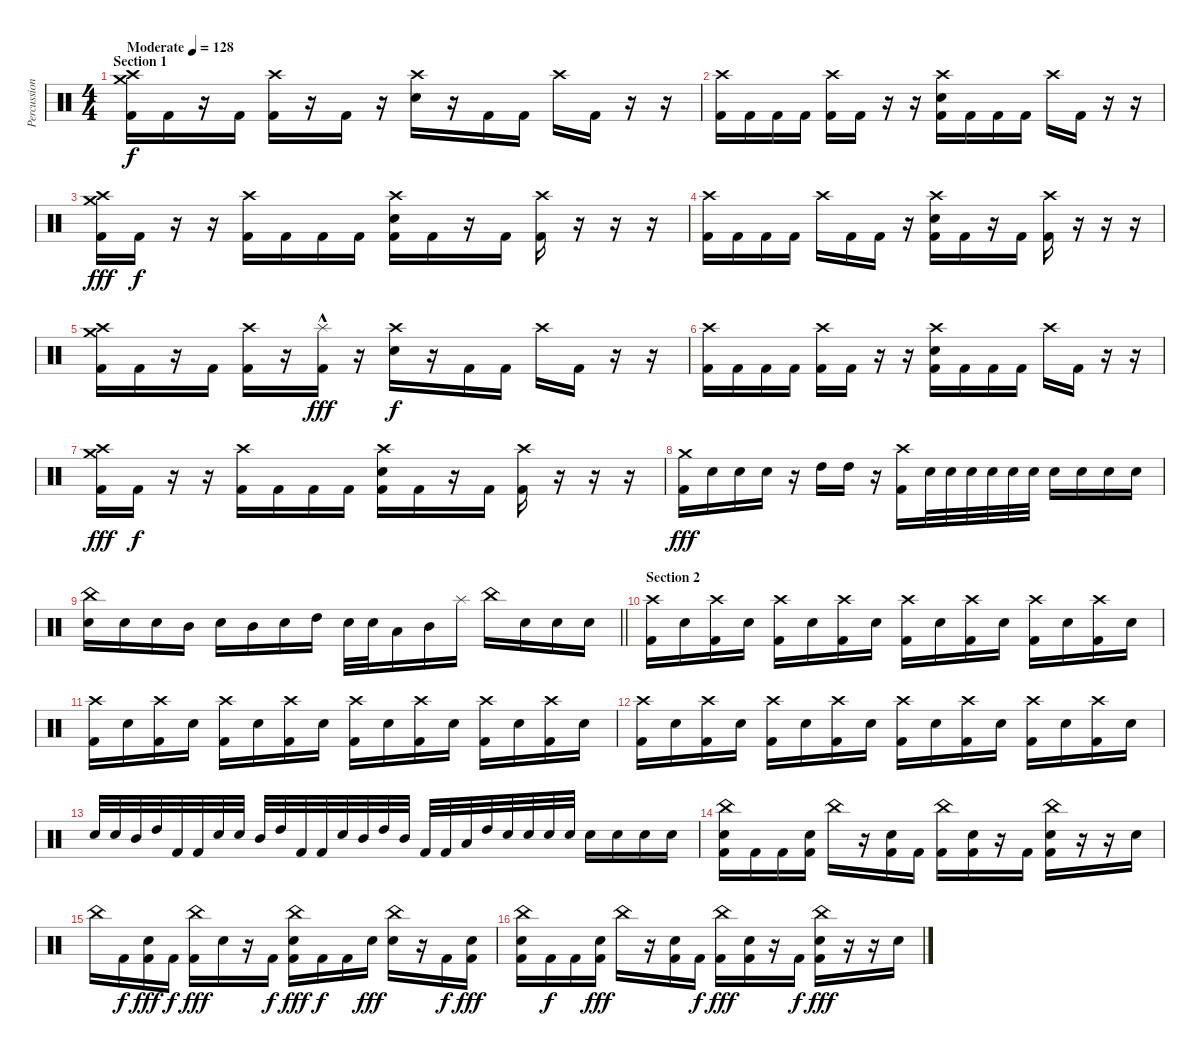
\track ("Percussion" "Percussion") {instrument percussion}
\staff {score}
\articulation defaults
\ts (4 4)
\section ("" "Section 1")
\tempo (128 "Moderate")
\clef neutral
\ks c
("Crash high (hit)" "Crash medium (hit)" "Kick (hit) 2").16{dy f} "Kick (hit) 2".16 r.16 "Kick (hit) 2".16 ("Crash high (hit)" "Kick (hit) 2").16 r.16 "Kick (hit) 2".16 r.16 ("Crash high (hit)" "Snare (hit) 2").16 r.16 "Kick (hit) 2".16 "Kick (hit) 2".16 "Crash high (hit)".16 "Kick (hit) 2".16 r.16 r.16 |
("Crash high (hit)" "Kick (hit) 2").16 "Kick (hit) 2".16 "Kick (hit) 2".16 "Kick (hit) 2".16 ("Crash high (hit)" "Kick (hit) 2").16 "Kick (hit) 2".16 r.16 r.16 ("Crash high (hit)" "Snare (hit) 2" "Kick (hit) 2").16 "Kick (hit) 2".16 "Kick (hit) 2".16 "Kick (hit) 2".16 "Crash high (hit)".16 "Kick (hit) 2".16 r.16 r.16 |
("Crash high (hit)" "Crash medium (hit)" "Kick (hit) 2").16{dy fff} "Kick (hit) 2".16{dy f} r.16 r.16 ("Crash high (hit)" "Kick (hit) 2").16 "Kick (hit) 2".16 "Kick (hit) 2".16 "Kick (hit) 2".16 ("Crash high (hit)" "Snare (hit) 2" "Kick (hit) 2").16 "Kick (hit) 2".16 r.16 "Kick (hit) 2".16 ("Crash high (hit)" "Kick (hit) 2").16 r.16 r.16 r.16 |
("Crash high (hit)" "Kick (hit) 2").16 "Kick (hit) 2".16 "Kick (hit) 2".16 "Kick (hit) 2".16 "Crash high (hit)".16 "Kick (hit) 2".16 "Kick (hit) 2".16 r.16 ("Crash high (hit)" "Snare (hit) 2" "Kick (hit) 2").16 "Kick (hit) 2".16 r.16 "Kick (hit) 2".16 ("Crash high (hit)" "Kick (hit) 2").16 r.16 r.16 r.16 |
("Crash high (hit)" "Crash medium (hit)" "Kick (hit) 2").16 "Kick (hit) 2".16 r.16 "Kick (hit) 2".16 ("Crash high (hit)" "Kick (hit) 2").16 r.16 ("Splash (hit)"{hac} "Kick (hit) 2").16{dy fff} r.16 ("Crash high (hit)" "Snare (hit) 2").16{dy f} r.16 "Kick (hit) 2".16 "Kick (hit) 2".16 "Crash high (hit)".16 "Kick (hit) 2".16 r.16 r.16 |
("Crash high (hit)" "Kick (hit) 2").16 "Kick (hit) 2".16 "Kick (hit) 2".16 "Kick (hit) 2".16 ("Crash high (hit)" "Kick (hit) 2").16 "Kick (hit) 2".16 r.16 r.16 ("Crash high (hit)" "Snare (hit) 2" "Kick (hit) 2").16 "Kick (hit) 2".16 "Kick (hit) 2".16 "Kick (hit) 2".16 "Crash high (hit)".16 "Kick (hit) 2".16 r.16 r.16 |
("Crash high (hit)" "Crash medium (hit)" "Kick (hit) 2").16{dy fff} "Kick (hit) 2".16{dy f} r.16 r.16 ("Crash high (hit)" "Kick (hit) 2").16 "Kick (hit) 2".16 "Kick (hit) 2".16 "Kick (hit) 2".16 ("Crash high (hit)" "Snare (hit) 2" "Kick (hit) 2").16 "Kick (hit) 2".16 r.16 "Kick (hit) 2".16 ("Crash high (hit)" "Kick (hit) 2").16 r.16 r.16 r.16 |
("Crash medium (hit)" "Kick (hit) 2").16{dy fff} "Snare (hit) 2".16 "Snare (hit) 2".16 "Snare (hit) 2".16 r.16 "High Tom (hit)".16 "High Tom (hit)".16 r.16 ("Crash high (hit)" "Kick (hit) 2").16 "Snare (hit) 2".32 "Snare (hit) 2".32 "Snare (hit) 2".32 "Snare (hit) 2".32 "Snare (hit) 2".32 "Snare (hit) 2".32 "Snare (hit) 2".16 "Snare (hit) 2".16 "Snare (hit) 2".16 "Snare (hit) 2".16 |
\barLineRight lightlight
("China (hit)" "Snare (hit) 2").16 "Snare (hit) 2".16 "Snare (hit) 2".16 "Mid Tom (hit)".16 "Snare (hit) 2".16 "Mid Tom (hit)".16 "Snare (hit) 2".16 "High Tom (hit)".16 "Snare (hit) 2".32 "Snare (hit) 2".32 "Low Tom (hit)".16 "Mid Tom (hit)".16 "Splash (hit)".16 "China (hit)".16 "Snare (hit) 2".16 "Snare (hit) 2".16 "Snare (hit) 2".16 |
\section ("" "Section 2")
("Crash high (hit)" "Kick (hit) 2").16 "Snare (hit) 2".16 ("Crash high (hit)" "Kick (hit) 2").16 "Snare (hit) 2".16 ("Crash high (hit)" "Kick (hit) 2").16 "Snare (hit) 2".16 ("Crash high (hit)" "Kick (hit) 2").16 "Snare (hit) 2".16 ("Crash high (hit)" "Kick (hit) 2").16 "Snare (hit) 2".16 ("Crash high (hit)" "Kick (hit) 2").16 "Snare (hit) 2".16 ("Crash high (hit)" "Kick (hit) 2").16 "Snare (hit) 2".16 ("Crash high (hit)" "Kick (hit) 2").16 "Snare (hit) 2".16 |
("Crash high (hit)" "Kick (hit) 2").16 "Snare (hit) 2".16 ("Crash high (hit)" "Kick (hit) 2").16 "Snare (hit) 2".16 ("Crash high (hit)" "Kick (hit) 2").16 "Snare (hit) 2".16 ("Crash high (hit)" "Kick (hit) 2").16 "Snare (hit) 2".16 ("Crash high (hit)" "Kick (hit) 2").16 "Snare (hit) 2".16 ("Crash high (hit)" "Kick (hit) 2").16 "Snare (hit) 2".16 ("Crash high (hit)" "Kick (hit) 2").16 "Snare (hit) 2".16 ("Crash high (hit)" "Kick (hit) 2").16 "Snare (hit) 2".16 |
("Crash high (hit)" "Kick (hit) 2").16 "Snare (hit) 2".16 ("Crash high (hit)" "Kick (hit) 2").16 "Snare (hit) 2".16 ("Crash high (hit)" "Kick (hit) 2").16 "Snare (hit) 2".16 ("Crash high (hit)" "Kick (hit) 2").16 "Snare (hit) 2".16 ("Crash high (hit)" "Kick (hit) 2").16 "Snare (hit) 2".16 ("Crash high (hit)" "Kick (hit) 2").16 "Snare (hit) 2".16 ("Crash high (hit)" "Kick (hit) 2").16 "Snare (hit) 2".16 ("Crash high (hit)" "Kick (hit) 2").16 "Snare (hit) 2".16 |
"Snare (hit) 2".32 "Snare (hit) 2".32 "Mid Tom (hit)".32 "High Tom (hit)".32 "Kick (hit) 2".32 "Kick (hit) 2".32 "Snare (hit) 2".32 "Snare (hit) 2".32 "Mid Tom (hit)".32 "High Tom (hit)".32 "Kick (hit) 2".32 "Kick (hit) 2".32 "Snare (hit) 2".32 "Mid Tom (hit)".32 "High Tom (hit)".32 "Mid Tom (hit)".32 "Kick (hit) 2".32 "Kick (hit) 2".32 "Low Tom (hit)".32 "High Tom (hit)".32 "Snare (hit) 2".32 "Snare (hit) 2".32 "Snare (hit) 2".32 "Snare (hit) 2".32 "Snare (hit) 2".16 "Snare (hit) 2".16 "Snare (hit) 2".16 "Snare (hit) 2".16 |
("China (hit)" "Snare (hit) 2" "Kick (hit) 2").16 "Kick (hit) 2".16 "Kick (hit) 2".16 ("Snare (hit) 2" "Kick (hit) 2").16 "China (hit)".16 r.16 ("Snare (hit) 2" "Kick (hit) 2").16 "Kick (hit) 2".16 ("China (hit)" "Kick (hit) 2").16 ("Snare (hit) 2" "Kick (hit) 2").16 r.16 "Kick (hit) 2".16 ("China (hit)" "Snare (hit) 2" "Kick (hit) 2").16 r.16 r.16 "Snare (hit) 2".16 |
"China (hit)".16 "Kick (hit) 2".16{dy f} ("Snare (hit) 2" "Kick (hit) 2").16{dy fff} "Kick (hit) 2".16{dy f} ("China (hit)" "Kick (hit) 2").16{dy fff} "Snare (hit) 2".16 r.16 "Kick (hit) 2".16{dy f} ("China (hit)" "Snare (hit) 2" "Kick (hit) 2").16{dy fff} "Kick (hit) 2".16{dy f} "Kick (hit) 2".16 "Snare (hit) 2".16{dy fff} ("China (hit)" "Snare (hit) 2").16 r.16 "Kick (hit) 2".16{dy f} ("Snare (hit) 2" "Kick (hit) 2").16{dy fff} |
("China (hit)" "Snare (hit) 2" "Kick (hit) 2").16 "Kick (hit) 2".16{dy f} "Kick (hit) 2".16 ("Snare (hit) 2" "Kick (hit) 2").16{dy fff} "China (hit)".16 r.16 ("Snare (hit) 2" "Kick (hit) 2").16 "Kick (hit) 2".16{dy f} ("China (hit)" "Kick (hit) 2").16{dy fff} ("Snare (hit) 2" "Kick (hit) 2").16 r.16 "Kick (hit) 2".16{dy f} ("China (hit)" "Snare (hit) 2" "Kick (hit) 2").16{dy fff} r.16 r.16 "Snare (hit) 2".16
